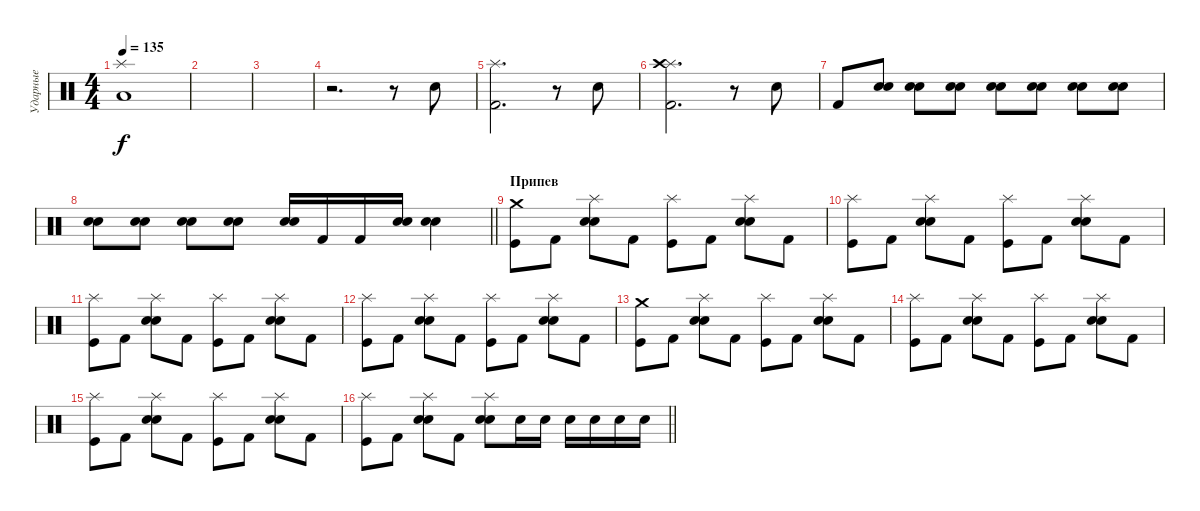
\track ("Ударные" "Ударные") {instrument percussion}
\staff {score}
\articulation defaults
\ts (4 4)
\tempo 135
\clef neutral
\ks c
("Splash (hit)" "Low Floor Tom (hit)").1{dy f} |
|
|
r.2{d} r.8 "Electric Snare (hit)".8 |
("Splash (hit)" "Kick (hit) 2").2{d} r.8 "Electric Snare (hit)".8 |
("Splash (hit)" "Crash high (hit)" "Kick (hit) 2").2{d} r.8 "Electric Snare (hit)".8 |
"Kick (hit) 2".8 ("Electric Snare (hit)" "Snare (hit) 2").8{volume 6} ("Electric Snare (hit)" "Snare (hit) 2").8{volume 13} ("Electric Snare (hit)" "Snare (hit) 2").8 ("Electric Snare (hit)" "Snare (hit) 2").8 ("Electric Snare (hit)" "Snare (hit) 2").8 ("Electric Snare (hit)" "Snare (hit) 2").8 ("Electric Snare (hit)" "Snare (hit) 2").8 |
\barLineRight lightlight
("Electric Snare (hit)" "Snare (hit) 2").8 ("Electric Snare (hit)" "Snare (hit) 2").8 ("Electric Snare (hit)" "Snare (hit) 2").8 ("Electric Snare (hit)" "Snare (hit) 2").8 ("Electric Snare (hit)" "Snare (hit) 2").16 "Kick (hit) 2".16 "Kick (hit) 2".16 ("Electric Snare (hit)" "Snare (hit) 2").16 ("Electric Snare (hit)" "Snare (hit) 2").4 |
\section ("" "Припев")
("Crash medium (hit)" "Kick (hit)").8 "Kick (hit) 2".8 ("Splash (hit)" "Electric Snare (hit)" "Snare (hit) 2").8 "Kick (hit) 2".8 ("Splash (hit)" "Kick (hit)").8 "Kick (hit) 2".8 ("Splash (hit)" "Electric Snare (hit)" "Snare (hit) 2").8 "Kick (hit) 2".8 |
("Splash (hit)" "Kick (hit)").8 "Kick (hit) 2".8 ("Splash (hit)" "Electric Snare (hit)" "Snare (hit) 2").8 "Kick (hit) 2".8 ("Splash (hit)" "Kick (hit)").8 "Kick (hit) 2".8 ("Splash (hit)" "Electric Snare (hit)" "Snare (hit) 2").8 "Kick (hit) 2".8 |
("Splash (hit)" "Kick (hit)").8 "Kick (hit) 2".8 ("Splash (hit)" "Electric Snare (hit)" "Snare (hit) 2").8 "Kick (hit) 2".8 ("Splash (hit)" "Kick (hit)").8 "Kick (hit) 2".8 ("Splash (hit)" "Electric Snare (hit)" "Snare (hit) 2").8 "Kick (hit) 2".8 |
("Splash (hit)" "Kick (hit)").8 "Kick (hit) 2".8 ("Splash (hit)" "Electric Snare (hit)" "Snare (hit) 2").8 "Kick (hit) 2".8 ("Splash (hit)" "Kick (hit)").8 "Kick (hit) 2".8 ("Splash (hit)" "Electric Snare (hit)" "Snare (hit) 2").8 "Kick (hit) 2".8 |
("Crash medium (hit)" "Kick (hit)").8 "Kick (hit) 2".8 ("Splash (hit)" "Electric Snare (hit)" "Snare (hit) 2").8 "Kick (hit) 2".8 ("Splash (hit)" "Kick (hit)").8 "Kick (hit) 2".8 ("Splash (hit)" "Electric Snare (hit)" "Snare (hit) 2").8 "Kick (hit) 2".8 |
("Splash (hit)" "Kick (hit)").8 "Kick (hit) 2".8 ("Splash (hit)" "Electric Snare (hit)" "Snare (hit) 2").8 "Kick (hit) 2".8 ("Splash (hit)" "Kick (hit)").8 "Kick (hit) 2".8 ("Splash (hit)" "Electric Snare (hit)" "Snare (hit) 2").8 "Kick (hit) 2".8 |
("Splash (hit)" "Kick (hit)").8 "Kick (hit) 2".8 ("Splash (hit)" "Electric Snare (hit)" "Snare (hit) 2").8 "Kick (hit) 2".8 ("Splash (hit)" "Kick (hit)").8 "Kick (hit) 2".8 ("Splash (hit)" "Electric Snare (hit)" "Snare (hit) 2").8 "Kick (hit) 2".8 |
\barLineRight lightlight
("Splash (hit)" "Kick (hit)").8 "Kick (hit) 2".8 ("Splash (hit)" "Electric Snare (hit)" "Snare (hit) 2").8 "Kick (hit) 2".8 ("Splash (hit)" "Electric Snare (hit)" "Snare (hit) 2").8 "Electric Snare (hit)".16 "Electric Snare (hit)".16 "Electric Snare (hit)".16 "Electric Snare (hit)".16 "Electric Snare (hit)".16 "Electric Snare (hit)".16
